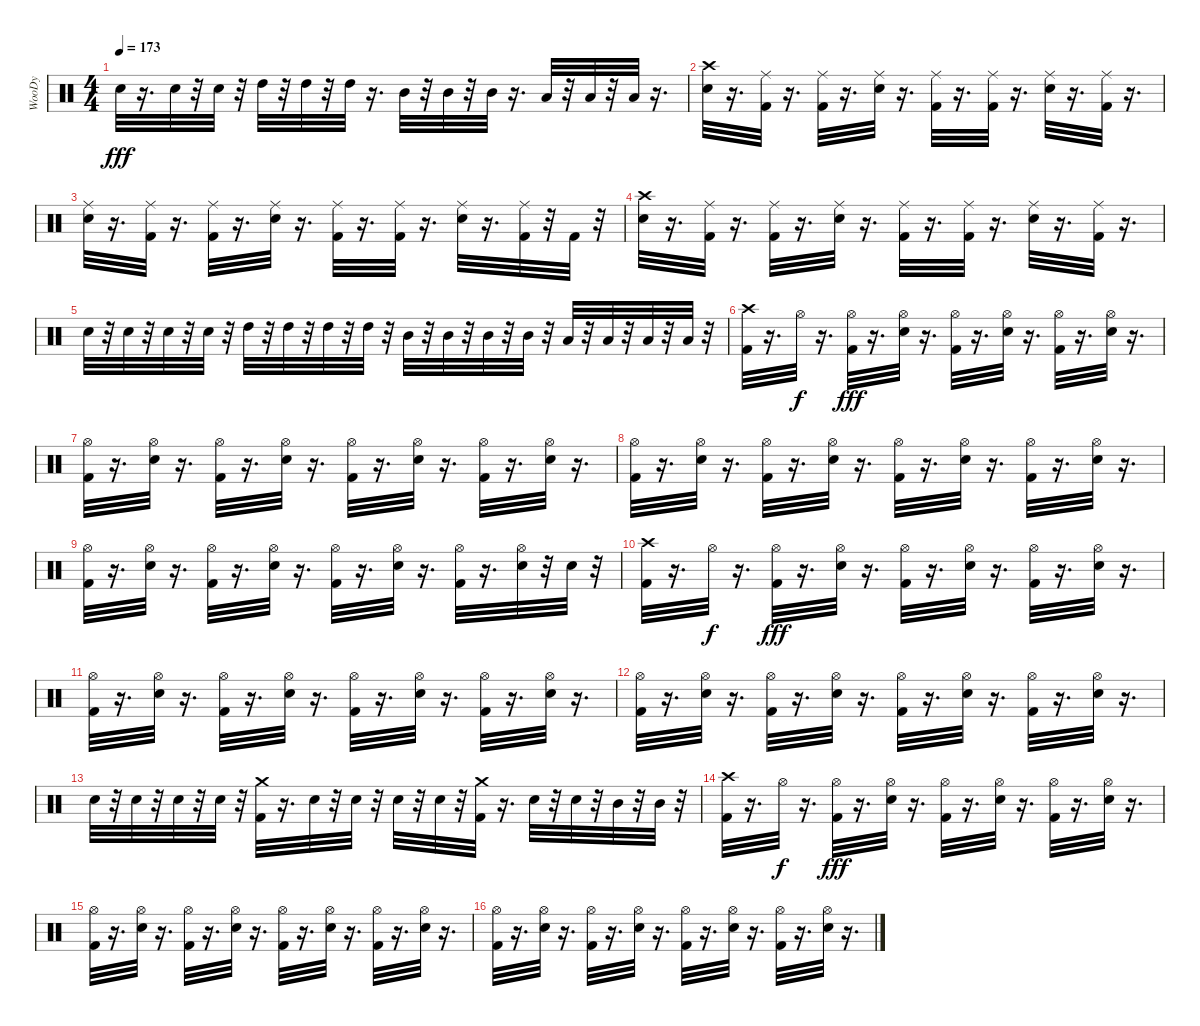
\track ("WooDy" "WooDy") {instrument percussion}
\staff {score}
\articulation defaults
\ts (4 4)
\tempo 173
\clef neutral
\ks c "Electric Snare (hit)".32{dy fff}
r.16{d} "Electric Snare (hit)".32 r.32 "Electric Snare (hit)".32 r.32 "High Tom (hit)".32 r.32 "High Tom (hit)".32 r.32 "High Tom (hit)".32 r.16{d} "Mid Tom (hit)".32 r.32 "Mid Tom (hit)".32 r.32 "Mid Tom (hit)".32 r.16{d} "Low Tom (hit)".32 r.32 "Low Tom (hit)".32 r.32 "Low Tom (hit)".32 r.16{d} |
("Electric Snare (hit)" "Crash high (hit)").32 r.16{d} ("Kick (hit) 2" "Ride (middle)").32 r.16{d} ("Kick (hit) 2" "Ride (middle)").32 r.16{d} ("Electric Snare (hit)" "Ride (middle)").32 r.16{d} ("Kick (hit) 2" "Ride (middle)").32 r.16{d} ("Kick (hit) 2" "Ride (middle)").32 r.16{d} ("Electric Snare (hit)" "Ride (middle)").32 r.16{d} ("Kick (hit) 2" "Ride (middle)").32 r.16{d} |
("Electric Snare (hit)" "Ride (middle)").32 r.16{d} ("Kick (hit) 2" "Ride (middle)").32 r.16{d} ("Kick (hit) 2" "Ride (middle)").32 r.16{d} ("Electric Snare (hit)" "Ride (middle)").32 r.16{d} ("Kick (hit) 2" "Ride (middle)").32 r.16{d} ("Kick (hit) 2" "Ride (middle)").32 r.16{d} ("Electric Snare (hit)" "Ride (middle)").32 r.16{d} ("Kick (hit) 2" "Ride (middle)").32 r.32 "Kick (hit) 2".32 r.32 |
("Electric Snare (hit)" "Crash high (hit)").32 r.16{d} ("Kick (hit) 2" "Ride (middle)").32 r.16{d} ("Kick (hit) 2" "Ride (middle)").32 r.16{d} ("Electric Snare (hit)" "Ride (middle)").32 r.16{d} ("Kick (hit) 2" "Ride (middle)").32 r.16{d} ("Kick (hit) 2" "Ride (middle)").32 r.16{d} ("Electric Snare (hit)" "Ride (middle)").32 r.16{d} ("Kick (hit) 2" "Ride (middle)").32 r.16{d} |
"Electric Snare (hit)".32 r.32 "Electric Snare (hit)".32 r.32 "Electric Snare (hit)".32 r.32 "Electric Snare (hit)".32 r.32 "High Tom (hit)".32 r.32 "High Tom (hit)".32 r.32 "High Tom (hit)".32 r.32 "High Tom (hit)".32 r.32 "Mid Tom (hit)".32 r.32 "Mid Tom (hit)".32 r.32 "Mid Tom (hit)".32 r.32 "Mid Tom (hit)".32 r.32 "Low Tom (hit)".32 r.32 "Low Tom (hit)".32 r.32 "Low Tom (hit)".32 r.32 "Low Tom (hit)".32 r.32 |
("Kick (hit) 2" "Crash high (hit)").32 r.16{d} "Hi-Hat (open)".32{dy f} r.16{d} ("Kick (hit) 2" "Hi-Hat (open)").32{dy fff} r.16{d} ("Electric Snare (hit)" "Hi-Hat (open)").32 r.16{d} ("Kick (hit) 2" "Hi-Hat (open)").32 r.16{d} ("Electric Snare (hit)" "Hi-Hat (open)").32 r.16{d} ("Kick (hit) 2" "Hi-Hat (open)").32 r.16{d} ("Electric Snare (hit)" "Hi-Hat (open)").32 r.16{d} |
("Kick (hit) 2" "Hi-Hat (open)").32 r.16{d} ("Electric Snare (hit)" "Hi-Hat (open)").32 r.16{d} ("Kick (hit) 2" "Hi-Hat (open)").32 r.16{d} ("Electric Snare (hit)" "Hi-Hat (open)").32 r.16{d} ("Kick (hit) 2" "Hi-Hat (open)").32 r.16{d} ("Electric Snare (hit)" "Hi-Hat (open)").32 r.16{d} ("Kick (hit) 2" "Hi-Hat (open)").32 r.16{d} ("Electric Snare (hit)" "Hi-Hat (open)").32 r.16{d} |
("Kick (hit) 2" "Hi-Hat (open)").32 r.16{d} ("Electric Snare (hit)" "Hi-Hat (open)").32 r.16{d} ("Kick (hit) 2" "Hi-Hat (open)").32 r.16{d} ("Electric Snare (hit)" "Hi-Hat (open)").32 r.16{d} ("Kick (hit) 2" "Hi-Hat (open)").32 r.16{d} ("Electric Snare (hit)" "Hi-Hat (open)").32 r.16{d} ("Kick (hit) 2" "Hi-Hat (open)").32 r.16{d} ("Electric Snare (hit)" "Hi-Hat (open)").32 r.16{d} |
("Kick (hit) 2" "Hi-Hat (open)").32 r.16{d} ("Electric Snare (hit)" "Hi-Hat (open)").32 r.16{d} ("Kick (hit) 2" "Hi-Hat (open)").32 r.16{d} ("Electric Snare (hit)" "Hi-Hat (open)").32 r.16{d} ("Kick (hit) 2" "Hi-Hat (open)").32 r.16{d} ("Electric Snare (hit)" "Hi-Hat (open)").32 r.16{d} ("Kick (hit) 2" "Hi-Hat (open)").32 r.16{d} ("Electric Snare (hit)" "Hi-Hat (open)").32 r.32 "Electric Snare (hit)".32 r.32 |
("Kick (hit) 2" "Crash high (hit)").32 r.16{d} "Hi-Hat (open)".32{dy f} r.16{d} ("Kick (hit) 2" "Hi-Hat (open)").32{dy fff} r.16{d} ("Electric Snare (hit)" "Hi-Hat (open)").32 r.16{d} ("Kick (hit) 2" "Hi-Hat (open)").32 r.16{d} ("Electric Snare (hit)" "Hi-Hat (open)").32 r.16{d} ("Kick (hit) 2" "Hi-Hat (open)").32 r.16{d} ("Electric Snare (hit)" "Hi-Hat (open)").32 r.16{d} |
("Kick (hit) 2" "Hi-Hat (open)").32 r.16{d} ("Electric Snare (hit)" "Hi-Hat (open)").32 r.16{d} ("Kick (hit) 2" "Hi-Hat (open)").32 r.16{d} ("Electric Snare (hit)" "Hi-Hat (open)").32 r.16{d} ("Kick (hit) 2" "Hi-Hat (open)").32 r.16{d} ("Electric Snare (hit)" "Hi-Hat (open)").32 r.16{d} ("Kick (hit) 2" "Hi-Hat (open)").32 r.16{d} ("Electric Snare (hit)" "Hi-Hat (open)").32 r.16{d} |
("Kick (hit) 2" "Hi-Hat (open)").32 r.16{d} ("Electric Snare (hit)" "Hi-Hat (open)").32 r.16{d} ("Kick (hit) 2" "Hi-Hat (open)").32 r.16{d} ("Electric Snare (hit)" "Hi-Hat (open)").32 r.16{d} ("Kick (hit) 2" "Hi-Hat (open)").32 r.16{d} ("Electric Snare (hit)" "Hi-Hat (open)").32 r.16{d} ("Kick (hit) 2" "Hi-Hat (open)").32 r.16{d} ("Electric Snare (hit)" "Hi-Hat (open)").32 r.16{d} |
"Electric Snare (hit)".32 r.32 "Electric Snare (hit)".32 r.32 "Electric Snare (hit)".32 r.32 "Electric Snare (hit)".32 r.32 ("Kick (hit) 2" "Crash medium (hit)").32 r.16{d} "Electric Snare (hit)".32 r.32 "Electric Snare (hit)".32 r.32 "Electric Snare (hit)".32 r.32 "Electric Snare (hit)".32 r.32 ("Kick (hit) 2" "Crash medium (hit)").32 r.16{d} "Electric Snare (hit)".32 r.32 "Electric Snare (hit)".32 r.32 "Mid Tom (hit)".32 r.32 "Mid Tom (hit)".32 r.32 |
("Kick (hit) 2" "Crash high (hit)").32 r.16{d} "Hi-Hat (open)".32{dy f} r.16{d} ("Kick (hit) 2" "Hi-Hat (open)").32{dy fff} r.16{d} ("Electric Snare (hit)" "Hi-Hat (open)").32 r.16{d} ("Kick (hit) 2" "Hi-Hat (open)").32 r.16{d} ("Electric Snare (hit)" "Hi-Hat (open)").32 r.16{d} ("Kick (hit) 2" "Hi-Hat (open)").32 r.16{d} ("Electric Snare (hit)" "Hi-Hat (open)").32 r.16{d} |
("Kick (hit) 2" "Hi-Hat (open)").32 r.16{d} ("Electric Snare (hit)" "Hi-Hat (open)").32 r.16{d} ("Kick (hit) 2" "Hi-Hat (open)").32 r.16{d} ("Electric Snare (hit)" "Hi-Hat (open)").32 r.16{d} ("Kick (hit) 2" "Hi-Hat (open)").32 r.16{d} ("Electric Snare (hit)" "Hi-Hat (open)").32 r.16{d} ("Kick (hit) 2" "Hi-Hat (open)").32 r.16{d} ("Electric Snare (hit)" "Hi-Hat (open)").32 r.16{d} |
("Kick (hit) 2" "Hi-Hat (open)").32 r.16{d} ("Electric Snare (hit)" "Hi-Hat (open)").32 r.16{d} ("Kick (hit) 2" "Hi-Hat (open)").32 r.16{d} ("Electric Snare (hit)" "Hi-Hat (open)").32 r.16{d} ("Kick (hit) 2" "Hi-Hat (open)").32 r.16{d} ("Electric Snare (hit)" "Hi-Hat (open)").32 r.16{d} ("Kick (hit) 2" "Hi-Hat (open)").32 r.16{d} ("Electric Snare (hit)" "Hi-Hat (open)").32 r.16{d}
